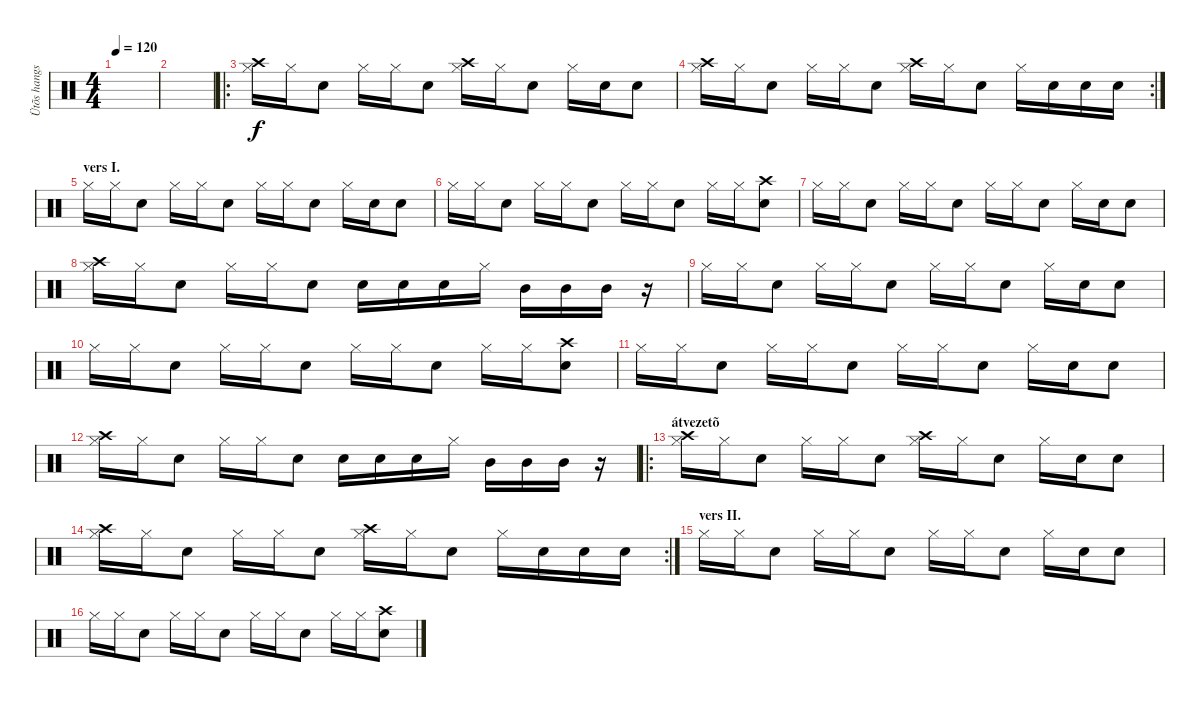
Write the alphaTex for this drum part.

\track ("Ütõs hangszer" "Ütõs hangs") {instrument percussion}
\staff {score}
\articulation defaults
\ts (4 4)
\tempo 120
\clef neutral
\ks c
|
|
\ro
("Hi-Hat (closed)" "Crash high (hit)").16 "Hi-Hat (closed)".16 "Electric Snare (hit)".8 "Hi-Hat (closed)".16 "Hi-Hat (closed)".16 "Electric Snare (hit)".8 ("Hi-Hat (closed)" "Crash high (hit)").16 "Hi-Hat (closed)".16 "Electric Snare (hit)".8 "Hi-Hat (closed)".16 "Snare (hit)".16 "Electric Snare (hit)".8 |
\rc 2
("Hi-Hat (closed)" "Crash high (hit)").16 "Hi-Hat (closed)".16 "Electric Snare (hit)".8 "Hi-Hat (closed)".16 "Hi-Hat (closed)".16 "Electric Snare (hit)".8 ("Hi-Hat (closed)" "Crash high (hit)").16 "Hi-Hat (closed)".16 "Electric Snare (hit)".8 "Hi-Hat (closed)".16 "Electric Snare (hit)".16 "Electric Snare (hit)".16 "Electric Snare (hit)".16 |
\section ("" "vers I.")
"Hi-Hat (closed)".16 "Hi-Hat (closed)".16 "Electric Snare (hit)".8 "Hi-Hat (closed)".16 "Hi-Hat (closed)".16 "Electric Snare (hit)".8 "Hi-Hat (closed)".16 "Hi-Hat (closed)".16 "Electric Snare (hit)".8 "Hi-Hat (closed)".16 "Snare (hit)".16 "Electric Snare (hit)".8 |
"Hi-Hat (closed)".16 "Hi-Hat (closed)".16 "Electric Snare (hit)".8 "Hi-Hat (closed)".16 "Hi-Hat (closed)".16 "Electric Snare (hit)".8 "Hi-Hat (closed)".16 "Hi-Hat (closed)".16 "Electric Snare (hit)".8 "Hi-Hat (closed)".16 "Hi-Hat (closed)".16 ("Electric Snare (hit)" "Crash high (hit)").8 |
"Hi-Hat (closed)".16 "Hi-Hat (closed)".16 "Electric Snare (hit)".8 "Hi-Hat (closed)".16 "Hi-Hat (closed)".16 "Electric Snare (hit)".8 "Hi-Hat (closed)".16 "Hi-Hat (closed)".16 "Electric Snare (hit)".8 "Hi-Hat (closed)".16 "Snare (hit)".16 "Electric Snare (hit)".8 |
("Hi-Hat (closed)" "Crash high (hit)").16 "Hi-Hat (closed)".16 "Electric Snare (hit)".8 "Hi-Hat (closed)".16 "Hi-Hat (closed)".16 "Electric Snare (hit)".8 "Electric Snare (hit)".16 "Electric Snare (hit)".16 "Electric Snare (hit)".16 "Hi-Hat (closed)".16 "Mid Tom (hit)".16 "Mid Tom (hit)".16 "Mid Tom (hit)".16 r.16 |
"Hi-Hat (closed)".16 "Hi-Hat (closed)".16 "Electric Snare (hit)".8 "Hi-Hat (closed)".16 "Hi-Hat (closed)".16 "Electric Snare (hit)".8 "Hi-Hat (closed)".16 "Hi-Hat (closed)".16 "Electric Snare (hit)".8 "Hi-Hat (closed)".16 "Snare (hit)".16 "Electric Snare (hit)".8 |
"Hi-Hat (closed)".16 "Hi-Hat (closed)".16 "Electric Snare (hit)".8 "Hi-Hat (closed)".16 "Hi-Hat (closed)".16 "Electric Snare (hit)".8 "Hi-Hat (closed)".16 "Hi-Hat (closed)".16 "Electric Snare (hit)".8 "Hi-Hat (closed)".16 "Hi-Hat (closed)".16 ("Electric Snare (hit)" "Crash high (hit)").8 |
"Hi-Hat (closed)".16 "Hi-Hat (closed)".16 "Electric Snare (hit)".8 "Hi-Hat (closed)".16 "Hi-Hat (closed)".16 "Electric Snare (hit)".8 "Hi-Hat (closed)".16 "Hi-Hat (closed)".16 "Electric Snare (hit)".8 "Hi-Hat (closed)".16 "Snare (hit)".16 "Electric Snare (hit)".8 |
("Hi-Hat (closed)" "Crash high (hit)").16 "Hi-Hat (closed)".16 "Electric Snare (hit)".8 "Hi-Hat (closed)".16 "Hi-Hat (closed)".16 "Electric Snare (hit)".8 "Electric Snare (hit)".16 "Electric Snare (hit)".16 "Electric Snare (hit)".16 "Hi-Hat (closed)".16 "Mid Tom (hit)".16 "Mid Tom (hit)".16 "Mid Tom (hit)".16 r.16 |
\ro
\section ("" "átvezetõ")
("Hi-Hat (closed)" "Crash high (hit)").16 "Hi-Hat (closed)".16 "Electric Snare (hit)".8 "Hi-Hat (closed)".16 "Hi-Hat (closed)".16 "Electric Snare (hit)".8 ("Hi-Hat (closed)" "Crash high (hit)").16 "Hi-Hat (closed)".16 "Electric Snare (hit)".8 "Hi-Hat (closed)".16 "Snare (hit)".16 "Electric Snare (hit)".8 |
\rc 2
("Hi-Hat (closed)" "Crash high (hit)").16 "Hi-Hat (closed)".16 "Electric Snare (hit)".8 "Hi-Hat (closed)".16 "Hi-Hat (closed)".16 "Electric Snare (hit)".8 ("Hi-Hat (closed)" "Crash high (hit)").16 "Hi-Hat (closed)".16 "Electric Snare (hit)".8 "Hi-Hat (closed)".16 "Electric Snare (hit)".16 "Electric Snare (hit)".16 "Electric Snare (hit)".16 |
\section ("" "vers II.")
"Hi-Hat (closed)".16 "Hi-Hat (closed)".16 "Electric Snare (hit)".8 "Hi-Hat (closed)".16 "Hi-Hat (closed)".16 "Electric Snare (hit)".8 "Hi-Hat (closed)".16 "Hi-Hat (closed)".16 "Electric Snare (hit)".8 "Hi-Hat (closed)".16 "Snare (hit)".16 "Electric Snare (hit)".8 |
"Hi-Hat (closed)".16 "Hi-Hat (closed)".16 "Electric Snare (hit)".8 "Hi-Hat (closed)".16 "Hi-Hat (closed)".16 "Electric Snare (hit)".8 "Hi-Hat (closed)".16 "Hi-Hat (closed)".16 "Electric Snare (hit)".8 "Hi-Hat (closed)".16 "Hi-Hat (closed)".16 ("Electric Snare (hit)" "Crash high (hit)").8
